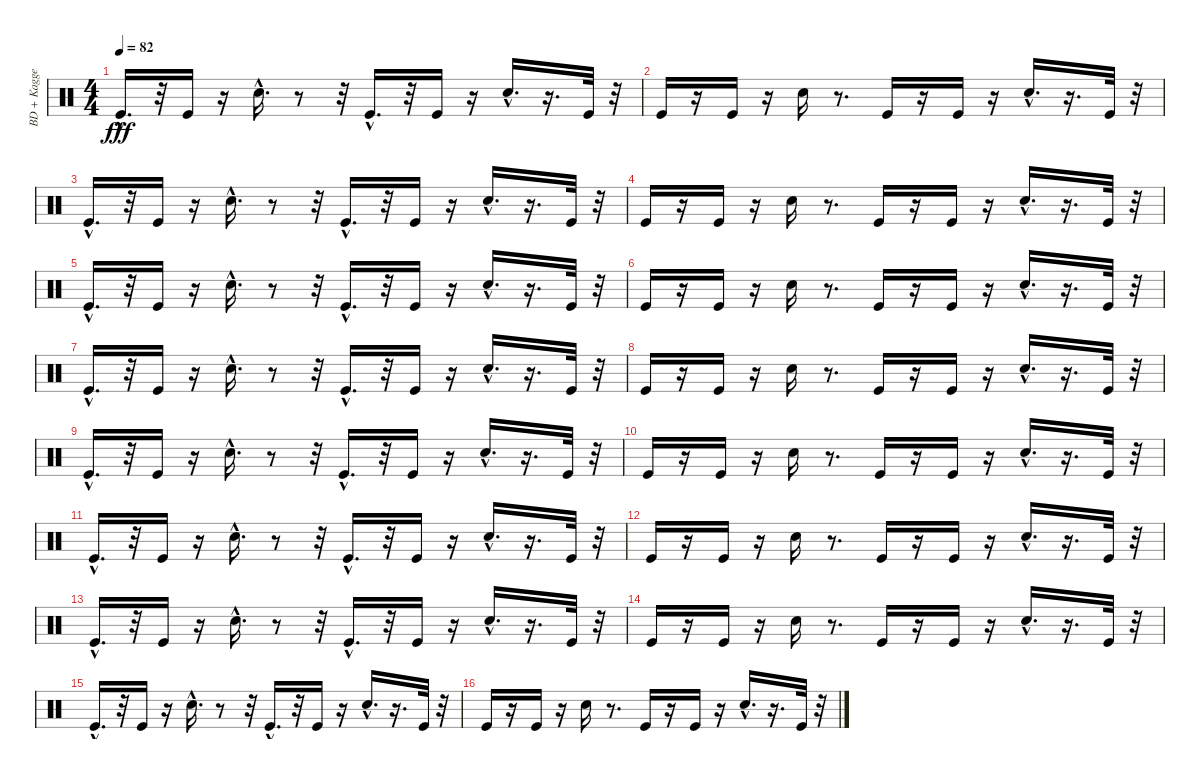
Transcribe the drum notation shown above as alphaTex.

\track ("BD + Kagge" "BD + Kagge") {instrument percussion}
\staff {score}
\articulation defaults
\ts (4 4)
\tempo 82
\clef neutral
\ks c "Kick (hit)"{hac}.16{d dy fff}
r.32 "Kick (hit)".16 r.16 "Electric Snare (hit)"{hac}.16{d} r.8 r.32 "Kick (hit)"{hac}.16{d} r.32 "Kick (hit)".16 r.16 "Electric Snare (hit)"{hac}.16{d} r.16{d} "Kick (hit)".32 r.32 |
"Kick (hit)".16 r.16 "Kick (hit)".16 r.16 "Electric Snare (hit)".16 r.8{d} "Kick (hit)".16 r.16 "Kick (hit)".16 r.16 "Electric Snare (hit)"{hac}.16{d} r.16{d} "Kick (hit)".32 r.32 |
"Kick (hit)"{hac}.16{d} r.32 "Kick (hit)".16 r.16 "Electric Snare (hit)"{hac}.16{d} r.8 r.32 "Kick (hit)"{hac}.16{d} r.32 "Kick (hit)".16 r.16 "Electric Snare (hit)"{hac}.16{d} r.16{d} "Kick (hit)".32 r.32 |
"Kick (hit)".16 r.16 "Kick (hit)".16 r.16 "Electric Snare (hit)".16 r.8{d} "Kick (hit)".16 r.16 "Kick (hit)".16 r.16 "Electric Snare (hit)"{hac}.16{d} r.16{d} "Kick (hit)".32 r.32 |
"Kick (hit)"{hac}.16{d} r.32 "Kick (hit)".16 r.16 "Electric Snare (hit)"{hac}.16{d} r.8 r.32 "Kick (hit)"{hac}.16{d} r.32 "Kick (hit)".16 r.16 "Electric Snare (hit)"{hac}.16{d} r.16{d} "Kick (hit)".32 r.32 |
"Kick (hit)".16 r.16 "Kick (hit)".16 r.16 "Electric Snare (hit)".16 r.8{d} "Kick (hit)".16 r.16 "Kick (hit)".16 r.16 "Electric Snare (hit)"{hac}.16{d} r.16{d} "Kick (hit)".32 r.32 |
"Kick (hit)"{hac}.16{d} r.32 "Kick (hit)".16 r.16 "Electric Snare (hit)"{hac}.16{d} r.8 r.32 "Kick (hit)"{hac}.16{d} r.32 "Kick (hit)".16 r.16 "Electric Snare (hit)"{hac}.16{d} r.16{d} "Kick (hit)".32 r.32 |
"Kick (hit)".16 r.16 "Kick (hit)".16 r.16 "Electric Snare (hit)".16 r.8{d} "Kick (hit)".16 r.16 "Kick (hit)".16 r.16 "Electric Snare (hit)"{hac}.16{d} r.16{d} "Kick (hit)".32 r.32 |
"Kick (hit)"{hac}.16{d} r.32 "Kick (hit)".16 r.16 "Electric Snare (hit)"{hac}.16{d} r.8 r.32 "Kick (hit)"{hac}.16{d} r.32 "Kick (hit)".16 r.16 "Electric Snare (hit)"{hac}.16{d} r.16{d} "Kick (hit)".32 r.32 |
"Kick (hit)".16 r.16 "Kick (hit)".16 r.16 "Electric Snare (hit)".16 r.8{d} "Kick (hit)".16 r.16 "Kick (hit)".16 r.16 "Electric Snare (hit)"{hac}.16{d} r.16{d} "Kick (hit)".32 r.32 |
"Kick (hit)"{hac}.16{d} r.32 "Kick (hit)".16 r.16 "Electric Snare (hit)"{hac}.16{d} r.8 r.32 "Kick (hit)"{hac}.16{d} r.32 "Kick (hit)".16 r.16 "Electric Snare (hit)"{hac}.16{d} r.16{d} "Kick (hit)".32 r.32 |
"Kick (hit)".16 r.16 "Kick (hit)".16 r.16 "Electric Snare (hit)".16 r.8{d} "Kick (hit)".16 r.16 "Kick (hit)".16 r.16 "Electric Snare (hit)"{hac}.16{d} r.16{d} "Kick (hit)".32 r.32 |
"Kick (hit)"{hac}.16{d} r.32 "Kick (hit)".16 r.16 "Electric Snare (hit)"{hac}.16{d} r.8 r.32 "Kick (hit)"{hac}.16{d} r.32 "Kick (hit)".16 r.16 "Electric Snare (hit)"{hac}.16{d} r.16{d} "Kick (hit)".32 r.32 |
"Kick (hit)".16 r.16 "Kick (hit)".16 r.16 "Electric Snare (hit)".16 r.8{d} "Kick (hit)".16 r.16 "Kick (hit)".16 r.16 "Electric Snare (hit)"{hac}.16{d} r.16{d} "Kick (hit)".32 r.32 |
"Kick (hit)"{hac}.16{d} r.32 "Kick (hit)".16 r.16 "Electric Snare (hit)"{hac}.16{d} r.8 r.32 "Kick (hit)"{hac}.16{d} r.32 "Kick (hit)".16 r.16 "Electric Snare (hit)"{hac}.16{d} r.16{d} "Kick (hit)".32 r.32 |
"Kick (hit)".16 r.16 "Kick (hit)".16 r.16 "Electric Snare (hit)".16 r.8{d} "Kick (hit)".16 r.16 "Kick (hit)".16 r.16 "Electric Snare (hit)"{hac}.16{d} r.16{d} "Kick (hit)".32 r.32
